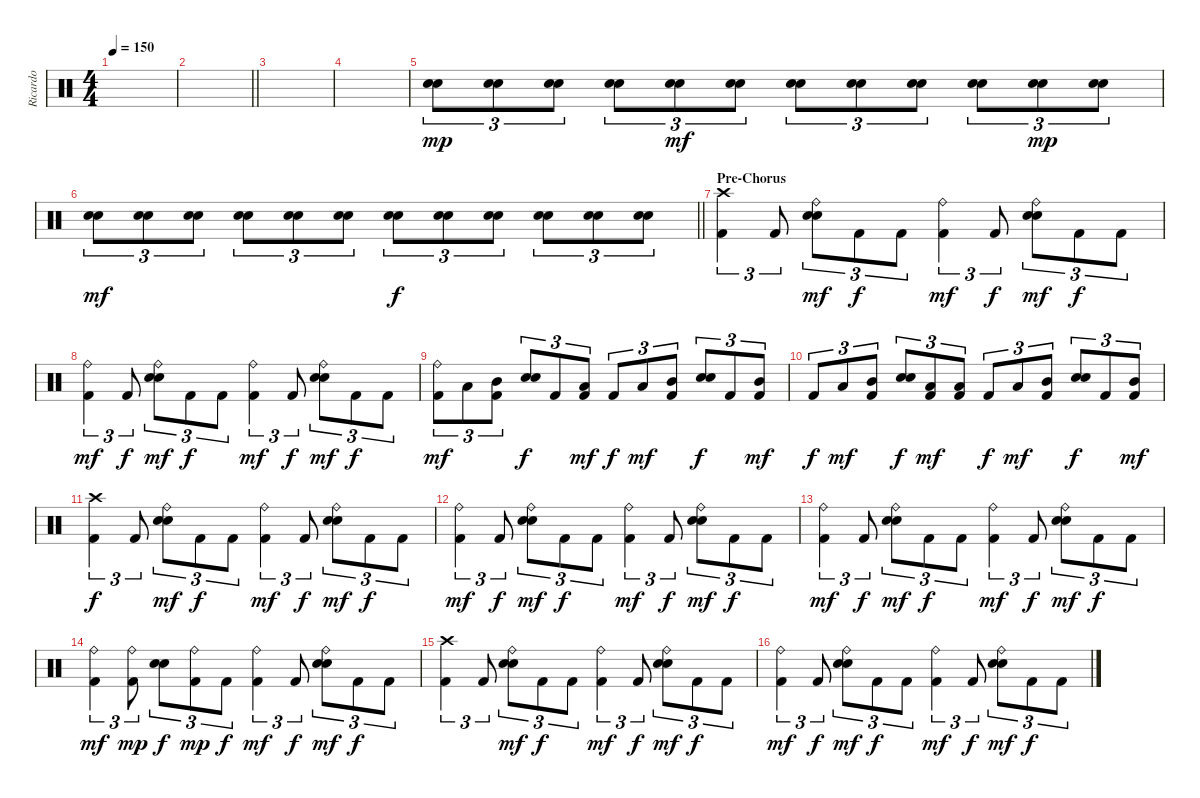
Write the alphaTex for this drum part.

\track ("Ricardo" "Ricardo") {instrument percussion}
\staff {score}
\articulation defaults
\ts (4 4)
\tempo 150
\clef neutral
\ks c
|
\barLineRight lightlight
|
|
|
("Electric Snare (hit)" "Snare (hit) 2").8{tu (3 2) dy mp} ("Electric Snare (hit)" "Snare (hit) 2").8{tu (3 2)} ("Electric Snare (hit)" "Snare (hit) 2").8{tu (3 2)} ("Electric Snare (hit)" "Snare (hit) 2").8{tu (3 2)} ("Electric Snare (hit)" "Snare (hit) 2").8{tu (3 2) dy mf} ("Electric Snare (hit)" "Snare (hit) 2").8{tu (3 2)} ("Electric Snare (hit)" "Snare (hit) 2").8{tu (3 2)} ("Electric Snare (hit)" "Snare (hit) 2").8{tu (3 2)} ("Electric Snare (hit)" "Snare (hit) 2").8{tu (3 2)} ("Electric Snare (hit)" "Snare (hit) 2").8{tu (3 2)} ("Electric Snare (hit)" "Snare (hit) 2").8{tu (3 2) dy mp} ("Electric Snare (hit)" "Snare (hit) 2").8{tu (3 2)} |
\barLineRight lightlight
("Electric Snare (hit)" "Snare (hit) 2").8{tu (3 2) dy mf} ("Electric Snare (hit)" "Snare (hit) 2").8{tu (3 2)} ("Electric Snare (hit)" "Snare (hit) 2").8{tu (3 2)} ("Electric Snare (hit)" "Snare (hit) 2").8{tu (3 2)} ("Electric Snare (hit)" "Snare (hit) 2").8{tu (3 2)} ("Electric Snare (hit)" "Snare (hit) 2").8{tu (3 2)} ("Electric Snare (hit)" "Snare (hit) 2").8{tu (3 2) dy f} ("Electric Snare (hit)" "Snare (hit) 2").8{tu (3 2)} ("Electric Snare (hit)" "Snare (hit) 2").8{tu (3 2)} ("Electric Snare (hit)" "Snare (hit) 2").8{tu (3 2)} ("Electric Snare (hit)" "Snare (hit) 2").8{tu (3 2)} ("Electric Snare (hit)" "Snare (hit) 2").8{tu (3 2)} |
\section ("" "Pre-Chorus")
("Crash high (hit)" "Kick (hit) 2").4{tu (3 2)} "Kick (hit) 2".8{tu (3 2)} ("Ride (bell)" "Electric Snare (hit)" "Snare (hit) 2").8{tu (3 2) dy mf} "Kick (hit) 2".8{tu (3 2) dy f} "Kick (hit) 2".8{tu (3 2)} ("Ride (bell)" "Kick (hit) 2").4{tu (3 2) dy mf} "Kick (hit) 2".8{tu (3 2) dy f} ("Ride (bell)" "Electric Snare (hit)" "Snare (hit) 2").8{tu (3 2) dy mf} "Kick (hit) 2".8{tu (3 2) dy f} "Kick (hit) 2".8{tu (3 2)} |
("Ride (bell)" "Kick (hit) 2").4{tu (3 2) dy mf} "Kick (hit) 2".8{tu (3 2) dy f} ("Ride (bell)" "Electric Snare (hit)" "Snare (hit) 2").8{tu (3 2) dy mf} "Kick (hit) 2".8{tu (3 2) dy f} "Kick (hit) 2".8{tu (3 2)} ("Ride (bell)" "Kick (hit) 2").4{tu (3 2) dy mf} "Kick (hit) 2".8{tu (3 2) dy f} ("Ride (bell)" "Electric Snare (hit)" "Snare (hit) 2").8{tu (3 2) dy mf} "Kick (hit) 2".8{tu (3 2) dy f} "Kick (hit) 2".8{tu (3 2)} |
("Ride (bell)" "Kick (hit) 2").8{tu (3 2) dy mf} "Low Tom (hit)".8{tu (3 2)} ("Mid Tom (hit)" "Kick (hit) 2").8{tu (3 2)} ("Electric Snare (hit)" "Snare (hit) 2").8{tu (3 2) dy f} "Kick (hit) 2".8{tu (3 2)} ("Low Tom (hit)" "Kick (hit) 2").8{tu (3 2) dy mf} "Kick (hit) 2".8{tu (3 2) dy f} "Low Tom (hit)".8{tu (3 2) dy mf} ("Mid Tom (hit)" "Kick (hit) 2").8{tu (3 2)} ("Electric Snare (hit)" "Snare (hit) 2").8{tu (3 2) dy f} "Kick (hit) 2".8{tu (3 2)} ("Mid Tom (hit)" "Kick (hit) 2").8{tu (3 2) dy mf} |
"Kick (hit) 2".8{tu (3 2) dy f} "Low Tom (hit)".8{tu (3 2) dy mf} ("Mid Tom (hit)" "Kick (hit) 2").8{tu (3 2)} ("Electric Snare (hit)" "Snare (hit) 2").8{tu (3 2) dy f} ("Low Tom (hit)" "Kick (hit) 2").8{tu (3 2) dy mf} ("Low Tom (hit)" "Kick (hit) 2").8{tu (3 2)} "Kick (hit) 2".8{tu (3 2) dy f} "Low Tom (hit)".8{tu (3 2) dy mf} ("Mid Tom (hit)" "Kick (hit) 2").8{tu (3 2)} ("Electric Snare (hit)" "Snare (hit) 2").8{tu (3 2) dy f} "Kick (hit) 2".8{tu (3 2)} ("Mid Tom (hit)" "Kick (hit) 2").8{tu (3 2) dy mf} |
("Crash high (hit)" "Kick (hit) 2").4{tu (3 2) dy f} "Kick (hit) 2".8{tu (3 2)} ("Ride (bell)" "Electric Snare (hit)" "Snare (hit) 2").8{tu (3 2) dy mf} "Kick (hit) 2".8{tu (3 2) dy f} "Kick (hit) 2".8{tu (3 2)} ("Ride (bell)" "Kick (hit) 2").4{tu (3 2) dy mf} "Kick (hit) 2".8{tu (3 2) dy f} ("Ride (bell)" "Electric Snare (hit)" "Snare (hit) 2").8{tu (3 2) dy mf} "Kick (hit) 2".8{tu (3 2) dy f} "Kick (hit) 2".8{tu (3 2)} |
("Ride (bell)" "Kick (hit) 2").4{tu (3 2) dy mf} "Kick (hit) 2".8{tu (3 2) dy f} ("Ride (bell)" "Electric Snare (hit)" "Snare (hit) 2").8{tu (3 2) dy mf} "Kick (hit) 2".8{tu (3 2) dy f} "Kick (hit) 2".8{tu (3 2)} ("Ride (bell)" "Kick (hit) 2").4{tu (3 2) dy mf} "Kick (hit) 2".8{tu (3 2) dy f} ("Ride (bell)" "Electric Snare (hit)" "Snare (hit) 2").8{tu (3 2) dy mf} "Kick (hit) 2".8{tu (3 2) dy f} "Kick (hit) 2".8{tu (3 2)} |
("Ride (bell)" "Kick (hit) 2").4{tu (3 2) dy mf} "Kick (hit) 2".8{tu (3 2) dy f} ("Ride (bell)" "Electric Snare (hit)" "Snare (hit) 2").8{tu (3 2) dy mf} "Kick (hit) 2".8{tu (3 2) dy f} "Kick (hit) 2".8{tu (3 2)} ("Ride (bell)" "Kick (hit) 2").4{tu (3 2) dy mf} "Kick (hit) 2".8{tu (3 2) dy f} ("Ride (bell)" "Electric Snare (hit)" "Snare (hit) 2").8{tu (3 2) dy mf} "Kick (hit) 2".8{tu (3 2) dy f} "Kick (hit) 2".8{tu (3 2)} |
("Ride (bell)" "Kick (hit) 2").4{tu (3 2) dy mf} ("Ride (bell)" "Kick (hit) 2").8{tu (3 2) dy mp} ("Electric Snare (hit)" "Snare (hit) 2").8{tu (3 2) dy f} ("Ride (bell)" "Kick (hit) 2").8{tu (3 2) dy mp} "Kick (hit) 2".8{tu (3 2) dy f} ("Ride (bell)" "Kick (hit) 2").4{tu (3 2) dy mf} "Kick (hit) 2".8{tu (3 2) dy f} ("Ride (bell)" "Electric Snare (hit)" "Snare (hit) 2").8{tu (3 2) dy mf} "Kick (hit) 2".8{tu (3 2) dy f} "Kick (hit) 2".8{tu (3 2)} |
("Crash high (hit)" "Kick (hit) 2").4{tu (3 2)} "Kick (hit) 2".8{tu (3 2)} ("Ride (bell)" "Electric Snare (hit)" "Snare (hit) 2").8{tu (3 2) dy mf} "Kick (hit) 2".8{tu (3 2) dy f} "Kick (hit) 2".8{tu (3 2)} ("Ride (bell)" "Kick (hit) 2").4{tu (3 2) dy mf} "Kick (hit) 2".8{tu (3 2) dy f} ("Ride (bell)" "Electric Snare (hit)" "Snare (hit) 2").8{tu (3 2) dy mf} "Kick (hit) 2".8{tu (3 2) dy f} "Kick (hit) 2".8{tu (3 2)} |
("Ride (bell)" "Kick (hit) 2").4{tu (3 2) dy mf} "Kick (hit) 2".8{tu (3 2) dy f} ("Ride (bell)" "Electric Snare (hit)" "Snare (hit) 2").8{tu (3 2) dy mf} "Kick (hit) 2".8{tu (3 2) dy f} "Kick (hit) 2".8{tu (3 2)} ("Ride (bell)" "Kick (hit) 2").4{tu (3 2) dy mf} "Kick (hit) 2".8{tu (3 2) dy f} ("Ride (bell)" "Electric Snare (hit)" "Snare (hit) 2").8{tu (3 2) dy mf} "Kick (hit) 2".8{tu (3 2) dy f} "Kick (hit) 2".8{tu (3 2)}
